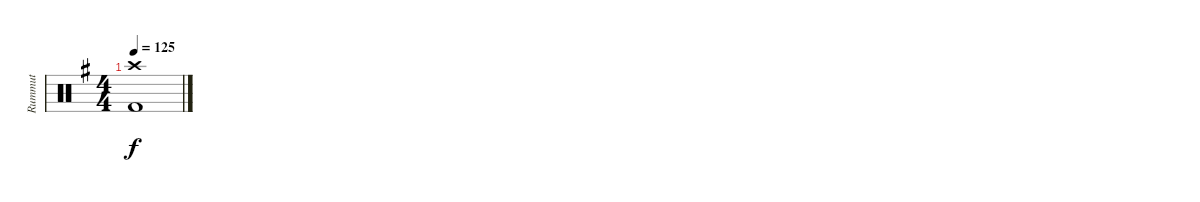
\track ("Rummut" "Rummut") {instrument percussion}
\staff {score}
\articulation defaults
\ts (4 4)
\tempo 125
\clef neutral
\ks g
("Crash high (hit)" "Kick (hit) 2").1{dy f}
